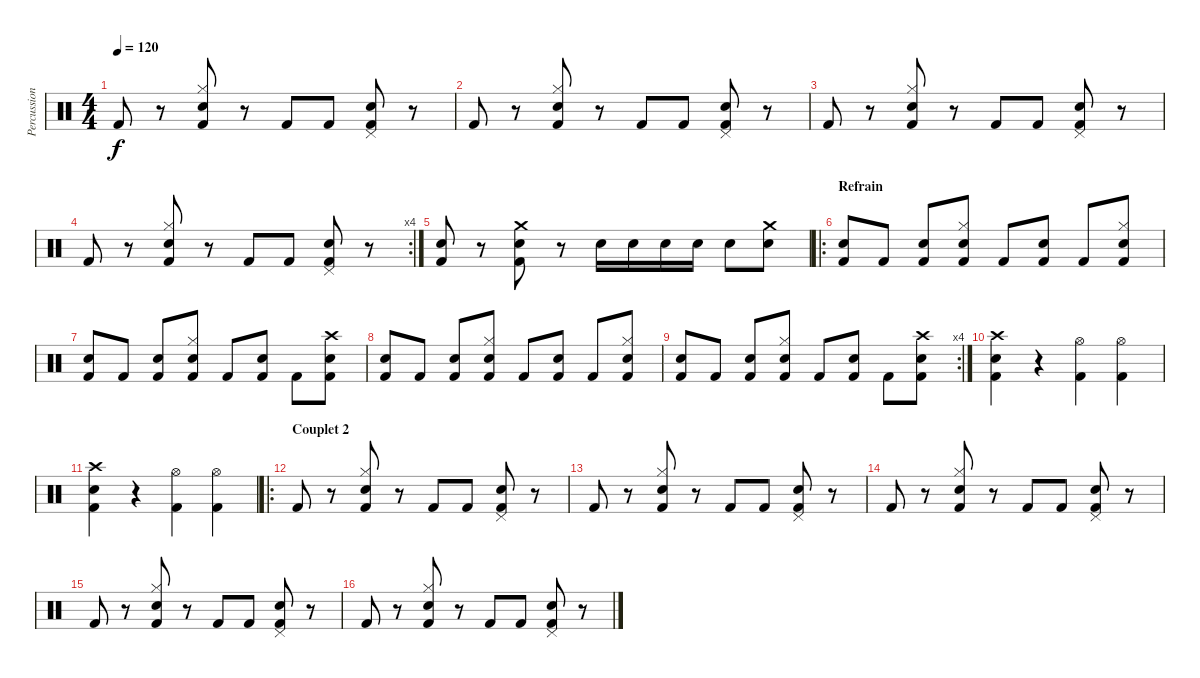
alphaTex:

\track ("Percussions" "Percussion") {instrument percussion}
\staff {score}
\articulation defaults
\ts (4 4)
\tempo 120
\clef neutral
\ks c "Kick (hit) 2".8{dy f}
r.8 ("Hi-Hat (closed)" "Snare (hit) 2" "Kick (hit) 2").8 r.8 "Kick (hit) 2".8 "Kick (hit) 2".8 ("Snare (hit) 2" "Pedal Hi-Hat (hit)" "Kick (hit) 2").8 r.8 |
"Kick (hit) 2".8 r.8 ("Hi-Hat (closed)" "Snare (hit) 2" "Kick (hit) 2").8 r.8 "Kick (hit) 2".8 "Kick (hit) 2".8 ("Snare (hit) 2" "Pedal Hi-Hat (hit)" "Kick (hit) 2").8 r.8 |
"Kick (hit) 2".8 r.8 ("Hi-Hat (closed)" "Snare (hit) 2" "Kick (hit) 2").8 r.8 "Kick (hit) 2".8 "Kick (hit) 2".8 ("Snare (hit) 2" "Pedal Hi-Hat (hit)" "Kick (hit) 2").8 r.8 |
\rc 4 "Kick (hit) 2".8
r.8 ("Hi-Hat (closed)" "Snare (hit) 2" "Kick (hit) 2").8 r.8 "Kick (hit) 2".8 "Kick (hit) 2".8 ("Snare (hit) 2" "Pedal Hi-Hat (hit)" "Kick (hit) 2").8 r.8 |
("Kick (hit) 2" "Snare (hit) 2").8 r.8 ("Crash medium (hit)" "Snare (hit) 2" "Kick (hit) 2").8 r.8 "Snare (hit) 2".16 "Snare (hit) 2".16 "Snare (hit) 2".16 "Snare (hit) 2".16 "Snare (hit) 2".8 ("Crash medium (hit)" "Snare (hit) 2").8 |
\ro
\section ("" "Refrain")
("Kick (hit) 2" "Snare (hit) 2").8 "Kick (hit) 2".8 ("Kick (hit) 2" "Snare (hit) 2").8 ("Hi-Hat (closed)" "Snare (hit) 2" "Kick (hit) 2").8 "Kick (hit) 2".8 ("Kick (hit) 2" "Snare (hit) 2").8 "Kick (hit) 2".8 ("Snare (hit) 2" "Hi-Hat (closed)" "Kick (hit) 2").8 |
("Kick (hit) 2" "Snare (hit) 2").8 "Kick (hit) 2".8 ("Kick (hit) 2" "Snare (hit) 2").8 ("Hi-Hat (closed)" "Snare (hit) 2" "Kick (hit) 2").8 "Kick (hit) 2".8 ("Kick (hit) 2" "Snare (hit) 2").8 "Kick (hit) 2".8 ("Snare (hit) 2" "Crash high (hit)" "Kick (hit) 2").8 |
("Kick (hit) 2" "Snare (hit) 2").8 "Kick (hit) 2".8 ("Kick (hit) 2" "Snare (hit) 2").8 ("Hi-Hat (closed)" "Snare (hit) 2" "Kick (hit) 2").8 "Kick (hit) 2".8 ("Kick (hit) 2" "Snare (hit) 2").8 "Kick (hit) 2".8 ("Snare (hit) 2" "Hi-Hat (closed)" "Kick (hit) 2").8 |
\rc 4
("Kick (hit) 2" "Snare (hit) 2").8 "Kick (hit) 2".8 ("Kick (hit) 2" "Snare (hit) 2").8 ("Hi-Hat (closed)" "Snare (hit) 2" "Kick (hit) 2").8 "Kick (hit) 2".8 ("Kick (hit) 2" "Snare (hit) 2").8 "Kick (hit) 2".8 ("Snare (hit) 2" "Crash high (hit)" "Kick (hit) 2").8 |
("Snare (hit) 2" "Kick (hit) 2" "Crash high (hit)").4 r.4 ("Hi-Hat (open)" "Kick (hit) 2").4 ("Hi-Hat (open)" "Kick (hit) 2").4 |
("Snare (hit) 2" "Kick (hit) 2" "Crash high (hit)").4 r.4 ("Hi-Hat (open)" "Kick (hit) 2").4 ("Hi-Hat (open)" "Kick (hit) 2").4 |
\ro
\section ("" "Couplet 2")
"Kick (hit) 2".8 r.8 ("Hi-Hat (closed)" "Snare (hit) 2" "Kick (hit) 2").8 r.8 "Kick (hit) 2".8 "Kick (hit) 2".8 ("Snare (hit) 2" "Pedal Hi-Hat (hit)" "Kick (hit) 2").8 r.8 |
"Kick (hit) 2".8 r.8 ("Hi-Hat (closed)" "Snare (hit) 2" "Kick (hit) 2").8 r.8 "Kick (hit) 2".8 "Kick (hit) 2".8 ("Snare (hit) 2" "Pedal Hi-Hat (hit)" "Kick (hit) 2").8 r.8 |
"Kick (hit) 2".8 r.8 ("Hi-Hat (closed)" "Snare (hit) 2" "Kick (hit) 2").8 r.8 "Kick (hit) 2".8 "Kick (hit) 2".8 ("Snare (hit) 2" "Pedal Hi-Hat (hit)" "Kick (hit) 2").8 r.8 |
"Kick (hit) 2".8 r.8 ("Hi-Hat (closed)" "Snare (hit) 2" "Kick (hit) 2").8 r.8 "Kick (hit) 2".8 "Kick (hit) 2".8 ("Snare (hit) 2" "Pedal Hi-Hat (hit)" "Kick (hit) 2").8 r.8 |
"Kick (hit) 2".8 r.8 ("Hi-Hat (closed)" "Snare (hit) 2" "Kick (hit) 2").8 r.8 "Kick (hit) 2".8 "Kick (hit) 2".8 ("Snare (hit) 2" "Pedal Hi-Hat (hit)" "Kick (hit) 2").8 r.8
